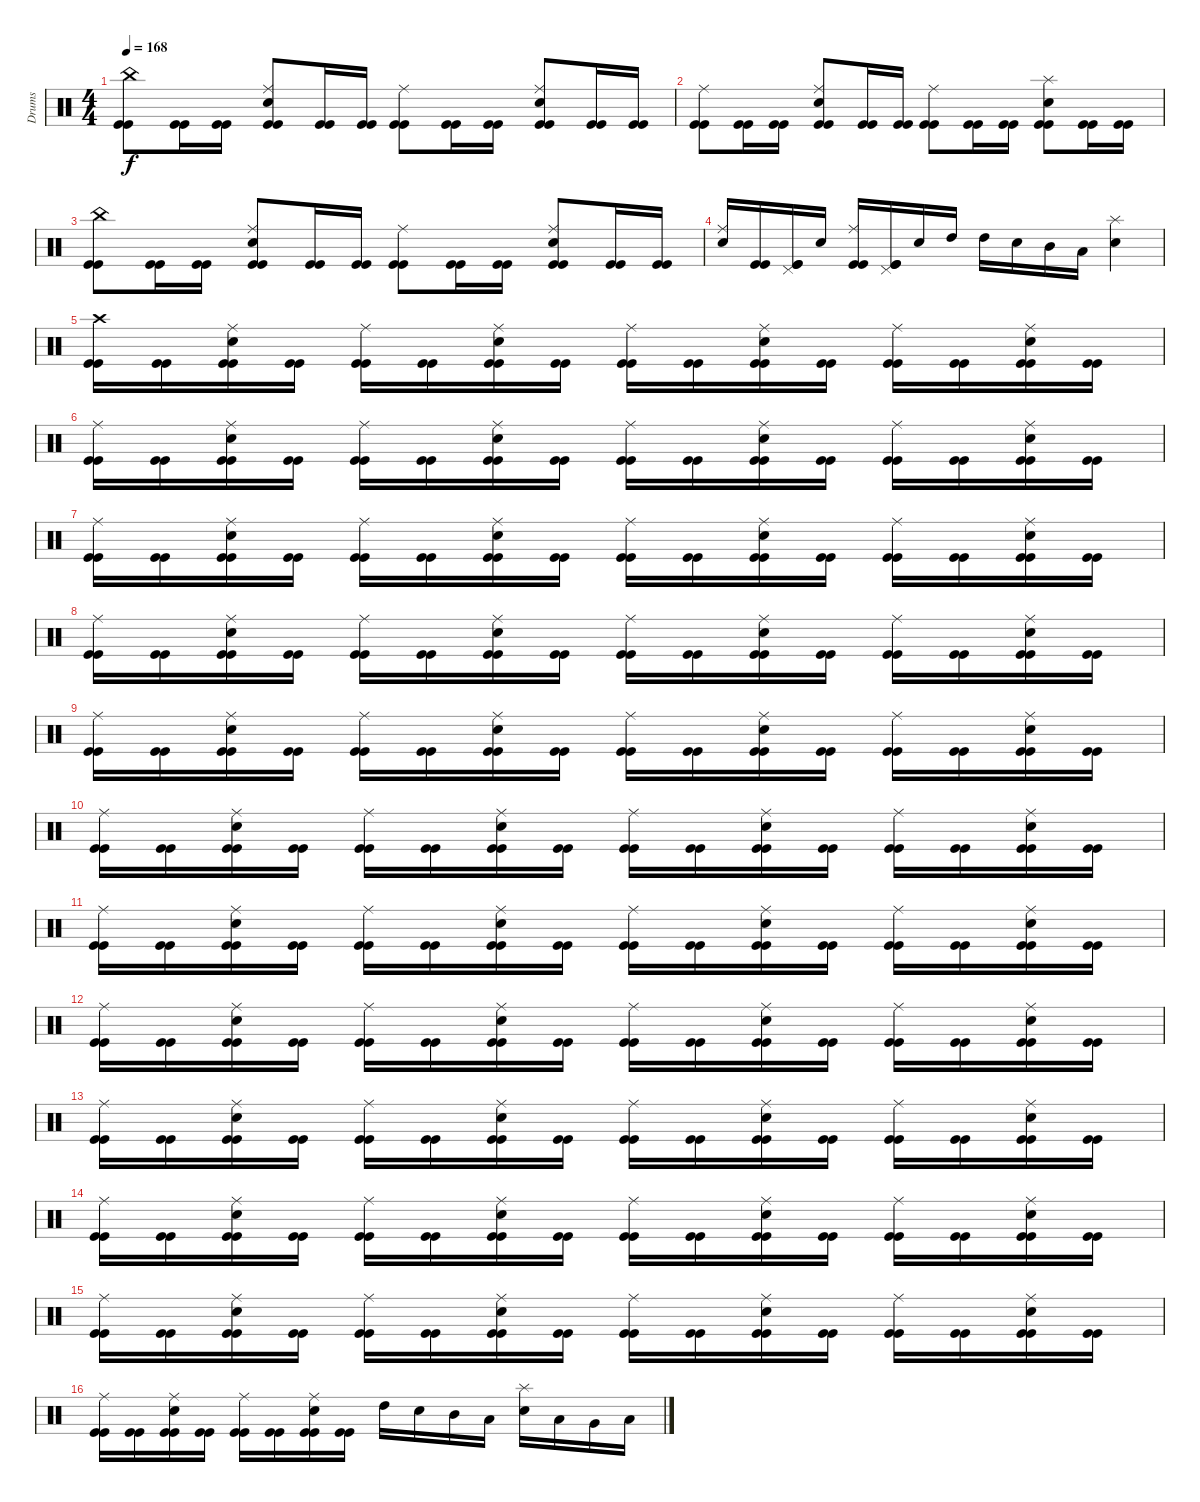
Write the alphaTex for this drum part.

\track ("Drums" "Drums") {instrument percussion}
\staff {score}
\articulation defaults
\ts (4 4)
\tempo 168
\clef neutral
\ks c
("China (hit)" "Kick (hit)" "Kick (hit)").8{dy f} ("Kick (hit)" "Kick (hit)").16 ("Kick (hit)" "Kick (hit)").16 ("Ride (middle)" "Electric Snare (hit)" "Kick (hit)" "Kick (hit)").8 ("Kick (hit)" "Kick (hit)").16 ("Kick (hit)" "Kick (hit)").16 ("Ride (middle)" "Kick (hit)" "Kick (hit)").8 ("Kick (hit)" "Kick (hit)").16 ("Kick (hit)" "Kick (hit)").16 ("Ride (middle)" "Electric Snare (hit)" "Kick (hit)" "Kick (hit)").8 ("Kick (hit)" "Kick (hit)").16 ("Kick (hit)" "Kick (hit)").16 |
("Ride (middle)" "Kick (hit)" "Kick (hit)").8 ("Kick (hit)" "Kick (hit)").16 ("Kick (hit)" "Kick (hit)").16 ("Ride (middle)" "Electric Snare (hit)" "Kick (hit)" "Kick (hit)").8 ("Kick (hit)" "Kick (hit)").16 ("Kick (hit)" "Kick (hit)").16 ("Ride (middle)" "Kick (hit)" "Kick (hit)").8 ("Kick (hit)" "Kick (hit)").16 ("Kick (hit)" "Kick (hit)").16 ("Splash (hit)" "Electric Snare (hit)" "Kick (hit)" "Kick (hit)").8 ("Kick (hit)" "Kick (hit)").16 ("Kick (hit)" "Kick (hit)").16 |
("China (hit)" "Kick (hit)" "Kick (hit)").8 ("Kick (hit)" "Kick (hit)").16 ("Kick (hit)" "Kick (hit)").16 ("Ride (middle)" "Electric Snare (hit)" "Kick (hit)" "Kick (hit)").8 ("Kick (hit)" "Kick (hit)").16 ("Kick (hit)" "Kick (hit)").16 ("Ride (middle)" "Kick (hit)" "Kick (hit)").8 ("Kick (hit)" "Kick (hit)").16 ("Kick (hit)" "Kick (hit)").16 ("Ride (middle)" "Electric Snare (hit)" "Kick (hit)" "Kick (hit)").8 ("Kick (hit)" "Kick (hit)").16 ("Kick (hit)" "Kick (hit)").16 |
("Ride (middle)" "Electric Snare (hit)").16 ("Kick (hit)" "Kick (hit)").16 ("Pedal Hi-Hat (hit)" "Kick (hit)" "Kick (hit)").16 "Electric Snare (hit)".16 ("Ride (middle)" "Kick (hit)" "Kick (hit)").16 ("Pedal Hi-Hat (hit)" "Kick (hit)" "Kick (hit)").16 "Electric Snare (hit)".16 "High Tom (hit)".16 "High Tom (hit)".16 "Electric Snare (hit)".16 "Mid Tom (hit)".16 "Low Tom (hit)".16 ("Splash (hit)" "Electric Snare (hit)").4 |
("Crash high (hit)" "Kick (hit)" "Kick (hit)").16 ("Kick (hit)" "Kick (hit)").16 ("Ride (middle)" "Electric Snare (hit)" "Kick (hit)" "Kick (hit)").16 ("Kick (hit)" "Kick (hit)").16 ("Ride (middle)" "Kick (hit)" "Kick (hit)").16 ("Kick (hit)" "Kick (hit)").16 ("Ride (middle)" "Electric Snare (hit)" "Kick (hit)" "Kick (hit)").16 ("Kick (hit)" "Kick (hit)").16 ("Ride (middle)" "Kick (hit)" "Kick (hit)").16 ("Kick (hit)" "Kick (hit)").16 ("Ride (middle)" "Electric Snare (hit)" "Kick (hit)" "Kick (hit)").16 ("Kick (hit)" "Kick (hit)").16 ("Ride (middle)" "Kick (hit)" "Kick (hit)").16 ("Kick (hit)" "Kick (hit)").16 ("Ride (middle)" "Electric Snare (hit)" "Kick (hit)" "Kick (hit)").16 ("Kick (hit)" "Kick (hit)").16 |
("Ride (middle)" "Kick (hit)" "Kick (hit)").16 ("Kick (hit)" "Kick (hit)").16 ("Ride (middle)" "Electric Snare (hit)" "Kick (hit)" "Kick (hit)").16 ("Kick (hit)" "Kick (hit)").16 ("Ride (middle)" "Kick (hit)" "Kick (hit)").16 ("Kick (hit)" "Kick (hit)").16 ("Ride (middle)" "Electric Snare (hit)" "Kick (hit)" "Kick (hit)").16 ("Kick (hit)" "Kick (hit)").16 ("Ride (middle)" "Kick (hit)" "Kick (hit)").16 ("Kick (hit)" "Kick (hit)").16 ("Ride (middle)" "Electric Snare (hit)" "Kick (hit)" "Kick (hit)").16 ("Kick (hit)" "Kick (hit)").16 ("Ride (middle)" "Kick (hit)" "Kick (hit)").16 ("Kick (hit)" "Kick (hit)").16 ("Ride (middle)" "Electric Snare (hit)" "Kick (hit)" "Kick (hit)").16 ("Kick (hit)" "Kick (hit)").16 |
("Ride (middle)" "Kick (hit)" "Kick (hit)").16 ("Kick (hit)" "Kick (hit)").16 ("Ride (middle)" "Electric Snare (hit)" "Kick (hit)" "Kick (hit)").16 ("Kick (hit)" "Kick (hit)").16 ("Ride (middle)" "Kick (hit)" "Kick (hit)").16 ("Kick (hit)" "Kick (hit)").16 ("Ride (middle)" "Electric Snare (hit)" "Kick (hit)" "Kick (hit)").16 ("Kick (hit)" "Kick (hit)").16 ("Ride (middle)" "Kick (hit)" "Kick (hit)").16 ("Kick (hit)" "Kick (hit)").16 ("Ride (middle)" "Electric Snare (hit)" "Kick (hit)" "Kick (hit)").16 ("Kick (hit)" "Kick (hit)").16 ("Ride (middle)" "Kick (hit)" "Kick (hit)").16 ("Kick (hit)" "Kick (hit)").16 ("Ride (middle)" "Electric Snare (hit)" "Kick (hit)" "Kick (hit)").16 ("Kick (hit)" "Kick (hit)").16 |
("Ride (middle)" "Kick (hit)" "Kick (hit)").16 ("Kick (hit)" "Kick (hit)").16 ("Ride (middle)" "Electric Snare (hit)" "Kick (hit)" "Kick (hit)").16 ("Kick (hit)" "Kick (hit)").16 ("Ride (middle)" "Kick (hit)" "Kick (hit)").16 ("Kick (hit)" "Kick (hit)").16 ("Ride (middle)" "Electric Snare (hit)" "Kick (hit)" "Kick (hit)").16 ("Kick (hit)" "Kick (hit)").16 ("Ride (middle)" "Kick (hit)" "Kick (hit)").16 ("Kick (hit)" "Kick (hit)").16 ("Ride (middle)" "Electric Snare (hit)" "Kick (hit)" "Kick (hit)").16 ("Kick (hit)" "Kick (hit)").16 ("Ride (middle)" "Kick (hit)" "Kick (hit)").16 ("Kick (hit)" "Kick (hit)").16 ("Ride (middle)" "Electric Snare (hit)" "Kick (hit)" "Kick (hit)").16 ("Kick (hit)" "Kick (hit)").16 |
("Ride (middle)" "Kick (hit)" "Kick (hit)").16 ("Kick (hit)" "Kick (hit)").16 ("Ride (middle)" "Electric Snare (hit)" "Kick (hit)" "Kick (hit)").16 ("Kick (hit)" "Kick (hit)").16 ("Ride (middle)" "Kick (hit)" "Kick (hit)").16 ("Kick (hit)" "Kick (hit)").16 ("Ride (middle)" "Electric Snare (hit)" "Kick (hit)" "Kick (hit)").16 ("Kick (hit)" "Kick (hit)").16 ("Ride (middle)" "Kick (hit)" "Kick (hit)").16 ("Kick (hit)" "Kick (hit)").16 ("Ride (middle)" "Electric Snare (hit)" "Kick (hit)" "Kick (hit)").16 ("Kick (hit)" "Kick (hit)").16 ("Ride (middle)" "Kick (hit)" "Kick (hit)").16 ("Kick (hit)" "Kick (hit)").16 ("Ride (middle)" "Electric Snare (hit)" "Kick (hit)" "Kick (hit)").16 ("Kick (hit)" "Kick (hit)").16 |
("Ride (middle)" "Kick (hit)" "Kick (hit)").16 ("Kick (hit)" "Kick (hit)").16 ("Ride (middle)" "Electric Snare (hit)" "Kick (hit)" "Kick (hit)").16 ("Kick (hit)" "Kick (hit)").16 ("Ride (middle)" "Kick (hit)" "Kick (hit)").16 ("Kick (hit)" "Kick (hit)").16 ("Ride (middle)" "Electric Snare (hit)" "Kick (hit)" "Kick (hit)").16 ("Kick (hit)" "Kick (hit)").16 ("Ride (middle)" "Kick (hit)" "Kick (hit)").16 ("Kick (hit)" "Kick (hit)").16 ("Ride (middle)" "Electric Snare (hit)" "Kick (hit)" "Kick (hit)").16 ("Kick (hit)" "Kick (hit)").16 ("Ride (middle)" "Kick (hit)" "Kick (hit)").16 ("Kick (hit)" "Kick (hit)").16 ("Ride (middle)" "Electric Snare (hit)" "Kick (hit)" "Kick (hit)").16 ("Kick (hit)" "Kick (hit)").16 |
("Ride (middle)" "Kick (hit)" "Kick (hit)").16 ("Kick (hit)" "Kick (hit)").16 ("Ride (middle)" "Electric Snare (hit)" "Kick (hit)" "Kick (hit)").16 ("Kick (hit)" "Kick (hit)").16 ("Ride (middle)" "Kick (hit)" "Kick (hit)").16 ("Kick (hit)" "Kick (hit)").16 ("Ride (middle)" "Electric Snare (hit)" "Kick (hit)" "Kick (hit)").16 ("Kick (hit)" "Kick (hit)").16 ("Ride (middle)" "Kick (hit)" "Kick (hit)").16 ("Kick (hit)" "Kick (hit)").16 ("Ride (middle)" "Electric Snare (hit)" "Kick (hit)" "Kick (hit)").16 ("Kick (hit)" "Kick (hit)").16 ("Ride (middle)" "Kick (hit)" "Kick (hit)").16 ("Kick (hit)" "Kick (hit)").16 ("Ride (middle)" "Electric Snare (hit)" "Kick (hit)" "Kick (hit)").16 ("Kick (hit)" "Kick (hit)").16 |
("Ride (middle)" "Kick (hit)" "Kick (hit)").16 ("Kick (hit)" "Kick (hit)").16 ("Ride (middle)" "Electric Snare (hit)" "Kick (hit)" "Kick (hit)").16 ("Kick (hit)" "Kick (hit)").16 ("Ride (middle)" "Kick (hit)" "Kick (hit)").16 ("Kick (hit)" "Kick (hit)").16 ("Ride (middle)" "Electric Snare (hit)" "Kick (hit)" "Kick (hit)").16 ("Kick (hit)" "Kick (hit)").16 ("Ride (middle)" "Kick (hit)" "Kick (hit)").16 ("Kick (hit)" "Kick (hit)").16 ("Ride (middle)" "Electric Snare (hit)" "Kick (hit)" "Kick (hit)").16 ("Kick (hit)" "Kick (hit)").16 ("Ride (middle)" "Kick (hit)" "Kick (hit)").16 ("Kick (hit)" "Kick (hit)").16 ("Ride (middle)" "Electric Snare (hit)" "Kick (hit)" "Kick (hit)").16 ("Kick (hit)" "Kick (hit)").16 |
("Ride (middle)" "Kick (hit)" "Kick (hit)").16 ("Kick (hit)" "Kick (hit)").16 ("Ride (middle)" "Electric Snare (hit)" "Kick (hit)" "Kick (hit)").16 ("Kick (hit)" "Kick (hit)").16 ("Ride (middle)" "Kick (hit)" "Kick (hit)").16 ("Kick (hit)" "Kick (hit)").16 ("Ride (middle)" "Electric Snare (hit)" "Kick (hit)" "Kick (hit)").16 ("Kick (hit)" "Kick (hit)").16 ("Ride (middle)" "Kick (hit)" "Kick (hit)").16 ("Kick (hit)" "Kick (hit)").16 ("Ride (middle)" "Electric Snare (hit)" "Kick (hit)" "Kick (hit)").16 ("Kick (hit)" "Kick (hit)").16 ("Ride (middle)" "Kick (hit)" "Kick (hit)").16 ("Kick (hit)" "Kick (hit)").16 ("Ride (middle)" "Electric Snare (hit)" "Kick (hit)" "Kick (hit)").16 ("Kick (hit)" "Kick (hit)").16 |
("Ride (middle)" "Kick (hit)" "Kick (hit)").16 ("Kick (hit)" "Kick (hit)").16 ("Ride (middle)" "Electric Snare (hit)" "Kick (hit)" "Kick (hit)").16 ("Kick (hit)" "Kick (hit)").16 ("Ride (middle)" "Kick (hit)" "Kick (hit)").16 ("Kick (hit)" "Kick (hit)").16 ("Ride (middle)" "Electric Snare (hit)" "Kick (hit)" "Kick (hit)").16 ("Kick (hit)" "Kick (hit)").16 ("Ride (middle)" "Kick (hit)" "Kick (hit)").16 ("Kick (hit)" "Kick (hit)").16 ("Ride (middle)" "Electric Snare (hit)" "Kick (hit)" "Kick (hit)").16 ("Kick (hit)" "Kick (hit)").16 ("Ride (middle)" "Kick (hit)" "Kick (hit)").16 ("Kick (hit)" "Kick (hit)").16 ("Ride (middle)" "Electric Snare (hit)" "Kick (hit)" "Kick (hit)").16 ("Kick (hit)" "Kick (hit)").16 |
("Ride (middle)" "Kick (hit)" "Kick (hit)").16 ("Kick (hit)" "Kick (hit)").16 ("Ride (middle)" "Electric Snare (hit)" "Kick (hit)" "Kick (hit)").16 ("Kick (hit)" "Kick (hit)").16 ("Ride (middle)" "Kick (hit)" "Kick (hit)").16 ("Kick (hit)" "Kick (hit)").16 ("Ride (middle)" "Electric Snare (hit)" "Kick (hit)" "Kick (hit)").16 ("Kick (hit)" "Kick (hit)").16 ("Ride (middle)" "Kick (hit)" "Kick (hit)").16 ("Kick (hit)" "Kick (hit)").16 ("Ride (middle)" "Electric Snare (hit)" "Kick (hit)" "Kick (hit)").16 ("Kick (hit)" "Kick (hit)").16 ("Ride (middle)" "Kick (hit)" "Kick (hit)").16 ("Kick (hit)" "Kick (hit)").16 ("Ride (middle)" "Electric Snare (hit)" "Kick (hit)" "Kick (hit)").16 ("Kick (hit)" "Kick (hit)").16 |
("Ride (middle)" "Kick (hit)" "Kick (hit)").16 ("Kick (hit)" "Kick (hit)").16 ("Ride (middle)" "Electric Snare (hit)" "Kick (hit)" "Kick (hit)").16 ("Kick (hit)" "Kick (hit)").16 ("Ride (middle)" "Kick (hit)" "Kick (hit)").16 ("Kick (hit)" "Kick (hit)").16 ("Ride (middle)" "Electric Snare (hit)" "Kick (hit)" "Kick (hit)").16 ("Kick (hit)" "Kick (hit)").16 "High Tom (hit)".16 "Electric Snare (hit)".16 "Mid Tom (hit)".16 "Low Tom (hit)".16 ("Splash (hit)" "Electric Snare (hit)").16 "Low Tom (hit)".16 "Very Low Tom (hit)".16 "Low Floor Tom (hit)".16
